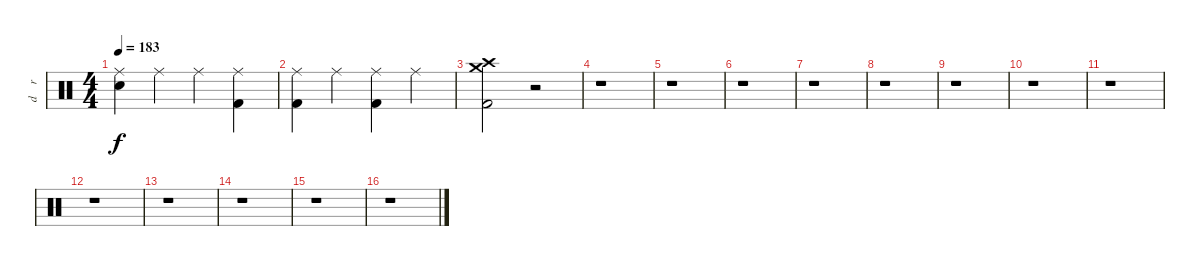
\track ("d    r     u    m    s" "d    r    ") {instrument percussion}
\staff {score}
\articulation defaults
\ts (4 4)
\tempo 183
\clef neutral
\ks c
("Ride (middle)" "Snare (hit) 2").4{dy f} "Ride (middle)".4 "Ride (middle)".4 ("Ride (middle)" "Kick (hit) 2").4 |
("Ride (middle)" "Kick (hit) 2").4 "Ride (middle)".4 ("Ride (middle)" "Kick (hit) 2").4 "Ride (middle)".4 |
("Crash high (hit)" "Crash medium (hit)" "Kick (hit) 2").2 r.2 |
r.1{volume 0} |
r.1 |
r.1 |
r.1 |
r.1 |
r.1 |
r.1 |
r.1 |
r.1 |
r.1 |
r.1 |
r.1 |
r.1
